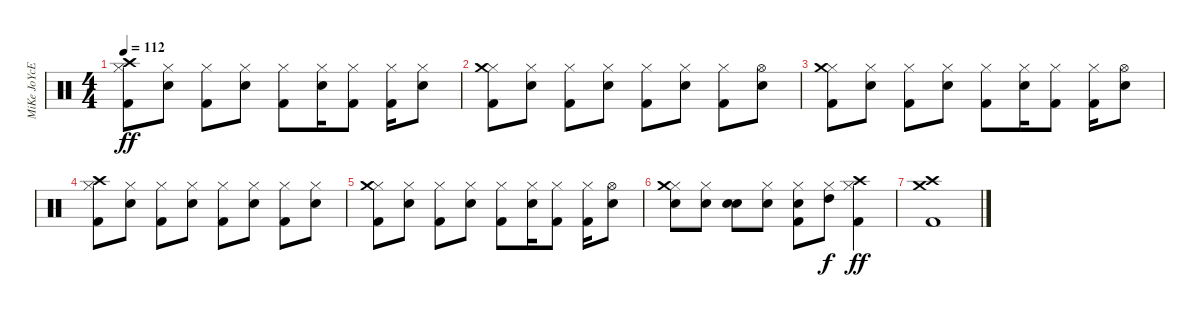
\track ("MiKe JoYcE" "MiKe JoYcE") {instrument percussion}
\staff {score}
\articulation defaults
\ts (4 4)
\tempo 112
\clef neutral
\ks c
("Hi-Hat (closed)" "Crash high (hit)" "Kick (hit) 2").8{dy ff} ("Hi-Hat (closed)" "Electric Snare (hit)").8 ("Hi-Hat (closed)" "Kick (hit) 2").8 ("Hi-Hat (closed)" "Electric Snare (hit)").8 ("Hi-Hat (closed)" "Kick (hit) 2").8 ("Hi-Hat (closed)" "Electric Snare (hit)").16 ("Hi-Hat (closed)" "Kick (hit) 2").8 ("Hi-Hat (closed)" "Kick (hit) 2").16 ("Hi-Hat (closed)" "Electric Snare (hit)").8 |
("Hi-Hat (closed)" "Crash medium (hit)" "Kick (hit) 2").8 ("Hi-Hat (closed)" "Electric Snare (hit)").8 ("Hi-Hat (closed)" "Kick (hit) 2").8 ("Hi-Hat (closed)" "Electric Snare (hit)").8 ("Hi-Hat (closed)" "Kick (hit) 2").8 ("Hi-Hat (closed)" "Electric Snare (hit)").8 ("Hi-Hat (closed)" "Kick (hit) 2").8 ("Hi-Hat (open)" "Electric Snare (hit)").8 |
("Hi-Hat (closed)" "Crash medium (hit)" "Kick (hit) 2").8 ("Hi-Hat (closed)" "Electric Snare (hit)").8 ("Hi-Hat (closed)" "Kick (hit) 2").8 ("Hi-Hat (closed)" "Electric Snare (hit)").8 ("Hi-Hat (closed)" "Kick (hit) 2").8 ("Hi-Hat (closed)" "Electric Snare (hit)").16 ("Hi-Hat (closed)" "Kick (hit) 2").8 ("Hi-Hat (closed)" "Kick (hit) 2").16 ("Hi-Hat (open)" "Electric Snare (hit)").8 |
("Hi-Hat (closed)" "Crash high (hit)" "Kick (hit) 2").8 ("Hi-Hat (closed)" "Electric Snare (hit)").8 ("Hi-Hat (closed)" "Kick (hit) 2").8 ("Hi-Hat (closed)" "Electric Snare (hit)").8 ("Hi-Hat (closed)" "Kick (hit) 2").8 ("Hi-Hat (closed)" "Electric Snare (hit)").8 ("Hi-Hat (closed)" "Kick (hit) 2").8 ("Hi-Hat (closed)" "Electric Snare (hit)").8 |
("Hi-Hat (closed)" "Crash medium (hit)" "Kick (hit) 2").8 ("Hi-Hat (closed)" "Electric Snare (hit)").8 ("Hi-Hat (closed)" "Kick (hit) 2").8 ("Hi-Hat (closed)" "Electric Snare (hit)").8 ("Hi-Hat (closed)" "Kick (hit) 2").8 ("Hi-Hat (closed)" "Electric Snare (hit)").16 ("Hi-Hat (closed)" "Kick (hit) 2").8 ("Hi-Hat (closed)" "Kick (hit) 2").16 ("Hi-Hat (open)" "Electric Snare (hit)").8 |
("Hi-Hat (closed)" "Crash medium (hit)" "Electric Snare (hit)").8 ("Hi-Hat (closed)" "Electric Snare (hit)").8 ("Snare (hit)" "Electric Snare (hit)").8 ("Hi-Hat (closed)" "Electric Snare (hit)").8 ("Hi-Hat (closed)" "Electric Snare (hit)" "Kick (hit) 2").8 ("Hi-Hat (closed)" "High Tom (hit)").8{dy f} ("Hi-Hat (closed)" "Crash high (hit)" "Kick (hit) 2").4{dy ff} |
("Crash medium (hit)" "Crash high (hit)" "Kick (hit) 2").1
